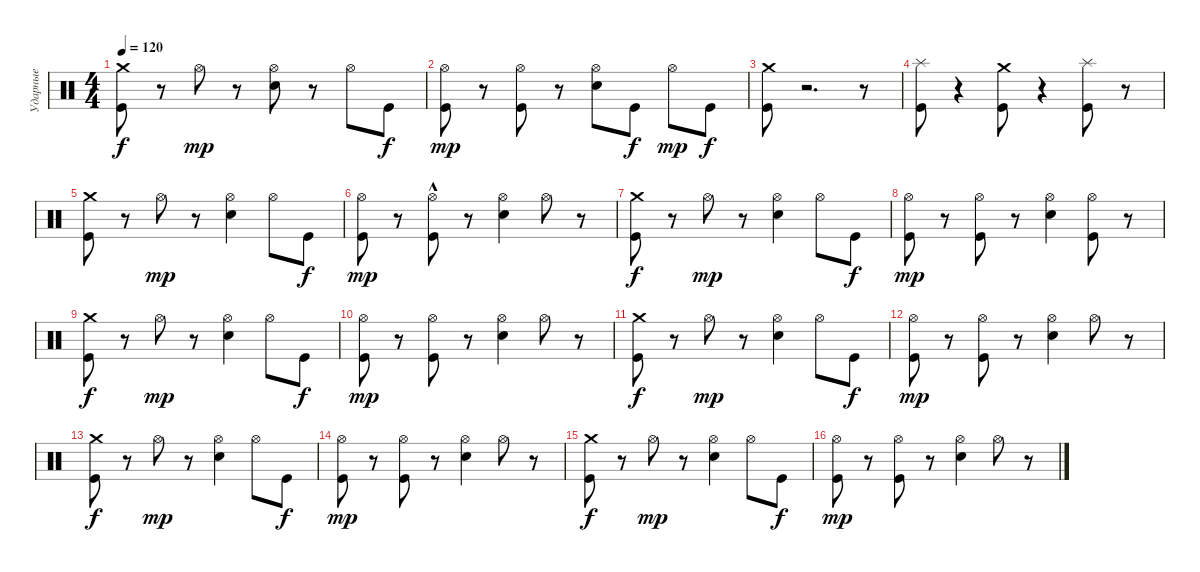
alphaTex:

\track ("Ударные" "Ударные") {instrument percussion}
\staff {score}
\articulation defaults
\ts (4 4)
\tempo 120
\clef neutral
\ks c
("Crash medium (hit)" "Kick (hit)").8{dy f} r.8 "Hi-Hat (open)".8{dy mp} r.8 ("Snare (hit) 2" "Hi-Hat (open)").8 r.8 "Hi-Hat (open)".8 "Kick (hit)".8{dy f} |
("Kick (hit)" "Hi-Hat (open)").8{dy mp} r.8 ("Kick (hit)" "Hi-Hat (open)").8 r.8 ("Snare (hit) 2" "Hi-Hat (open)").8 "Kick (hit)".8{dy f} "Hi-Hat (open)".8{dy mp} "Kick (hit)".8{dy f} |
("Crash medium (hit)" "Kick (hit)").8 r.2{d} r.8 |
("Kick (hit)" "Splash (hit)").8 r.4 ("Crash medium (hit)" "Kick (hit)").8 r.4 ("Kick (hit)" "Splash (hit)").8 r.8 |
("Kick (hit)" "Crash medium (hit)").8 r.8 "Hi-Hat (open)".8{dy mp} r.8 ("Snare (hit) 2" "Hi-Hat (open)").4 "Hi-Hat (open)".8 "Kick (hit)".8{dy f} |
("Kick (hit)" "Hi-Hat (open)").8{dy mp} r.8 ("Kick (hit)"{hac} "Hi-Hat (open)").8 r.8 ("Snare (hit) 2" "Hi-Hat (open)").4 "Hi-Hat (open)".8 r.8 |
("Crash medium (hit)" "Kick (hit)").8{dy f} r.8 "Hi-Hat (open)".8{dy mp} r.8 ("Snare (hit) 2" "Hi-Hat (open)").4 "Hi-Hat (open)".8 "Kick (hit)".8{dy f} |
("Kick (hit)" "Hi-Hat (open)").8{dy mp} r.8 ("Kick (hit)" "Hi-Hat (open)").8 r.8 ("Snare (hit) 2" "Hi-Hat (open)").4 ("Kick (hit)" "Hi-Hat (open)").8 r.8 |
("Kick (hit)" "Crash medium (hit)").8{dy f} r.8 "Hi-Hat (open)".8{dy mp} r.8 ("Snare (hit) 2" "Hi-Hat (open)").4 "Hi-Hat (open)".8 "Kick (hit)".8{dy f} |
("Kick (hit)" "Hi-Hat (open)").8{dy mp} r.8 ("Kick (hit)" "Hi-Hat (open)").8 r.8 ("Snare (hit) 2" "Hi-Hat (open)").4 "Hi-Hat (open)".8 r.8 |
("Kick (hit)" "Crash medium (hit)").8{dy f} r.8 "Hi-Hat (open)".8{dy mp} r.8 ("Snare (hit) 2" "Hi-Hat (open)").4 "Hi-Hat (open)".8 "Kick (hit)".8{dy f} |
("Kick (hit)" "Hi-Hat (open)").8{dy mp} r.8 ("Kick (hit)" "Hi-Hat (open)").8 r.8 ("Snare (hit) 2" "Hi-Hat (open)").4 "Hi-Hat (open)".8 r.8 |
("Kick (hit)" "Crash medium (hit)").8{dy f} r.8 "Hi-Hat (open)".8{dy mp} r.8 ("Snare (hit) 2" "Hi-Hat (open)").4 "Hi-Hat (open)".8 "Kick (hit)".8{dy f} |
("Kick (hit)" "Hi-Hat (open)").8{dy mp} r.8 ("Kick (hit)" "Hi-Hat (open)").8 r.8 ("Snare (hit) 2" "Hi-Hat (open)").4 "Hi-Hat (open)".8 r.8 |
("Kick (hit)" "Crash medium (hit)").8{dy f} r.8 "Hi-Hat (open)".8{dy mp} r.8 ("Snare (hit) 2" "Hi-Hat (open)").4 "Hi-Hat (open)".8 "Kick (hit)".8{dy f} |
("Kick (hit)" "Hi-Hat (open)").8{dy mp} r.8 ("Kick (hit)" "Hi-Hat (open)").8 r.8 ("Snare (hit) 2" "Hi-Hat (open)").4 "Hi-Hat (open)".8 r.8
